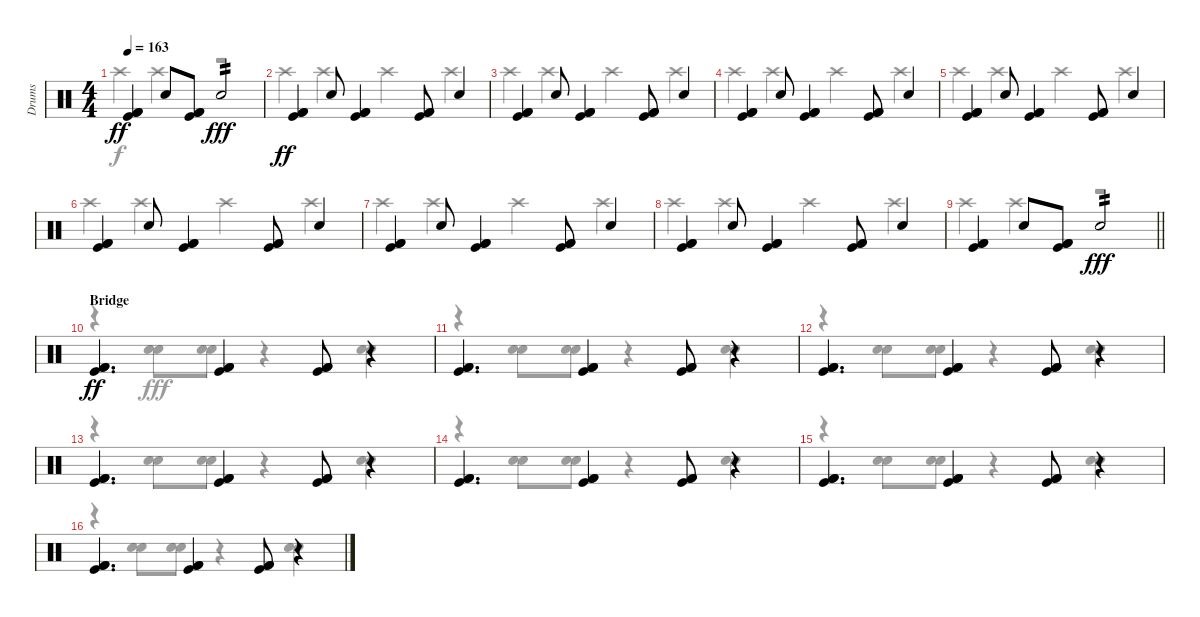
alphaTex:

\track ("Drums" "Drums") {instrument percussion}
\staff {score}
\articulation defaults
\voice
\ts (4 4)
\tempo 163
\clef neutral
\ks c
("Kick (hit) 2" "Kick (hit) 2" "Kick (hit)").4{dy ff} "Electric Snare (hit)".8 ("Kick (hit) 2" "Kick (hit) 2" "Kick (hit)").8 "Electric Snare (hit)".2{tp 2 dy fff} |
("Kick (hit) 2" "Kick (hit) 2" "Kick (hit)").4{dy ff} "Electric Snare (hit)".8 ("Kick (hit) 2" "Kick (hit) 2" "Kick (hit)").4 ("Kick (hit) 2" "Kick (hit) 2" "Kick (hit)").8 "Electric Snare (hit)".4 |
("Kick (hit) 2" "Kick (hit) 2" "Kick (hit)").4 "Electric Snare (hit)".8 ("Kick (hit) 2" "Kick (hit) 2" "Kick (hit)").4 ("Kick (hit) 2" "Kick (hit) 2" "Kick (hit)").8 "Electric Snare (hit)".4 |
("Kick (hit) 2" "Kick (hit) 2" "Kick (hit)").4 "Electric Snare (hit)".8 ("Kick (hit) 2" "Kick (hit) 2" "Kick (hit)").4 ("Kick (hit) 2" "Kick (hit) 2" "Kick (hit)").8 "Electric Snare (hit)".4 |
("Kick (hit) 2" "Kick (hit) 2" "Kick (hit)").4 "Electric Snare (hit)".8 ("Kick (hit) 2" "Kick (hit) 2" "Kick (hit)").4 ("Kick (hit) 2" "Kick (hit) 2" "Kick (hit)").8 "Electric Snare (hit)".4 |
("Kick (hit) 2" "Kick (hit) 2" "Kick (hit)").4 "Electric Snare (hit)".8 ("Kick (hit) 2" "Kick (hit) 2" "Kick (hit)").4 ("Kick (hit) 2" "Kick (hit) 2" "Kick (hit)").8 "Electric Snare (hit)".4 |
("Kick (hit) 2" "Kick (hit) 2" "Kick (hit)").4 "Electric Snare (hit)".8 ("Kick (hit) 2" "Kick (hit) 2" "Kick (hit)").4 ("Kick (hit) 2" "Kick (hit) 2" "Kick (hit)").8 "Electric Snare (hit)".4 |
("Kick (hit) 2" "Kick (hit) 2" "Kick (hit)").4 "Electric Snare (hit)".8 ("Kick (hit) 2" "Kick (hit) 2" "Kick (hit)").4 ("Kick (hit) 2" "Kick (hit) 2" "Kick (hit)").8 "Electric Snare (hit)".4 |
\barLineRight lightlight
("Kick (hit) 2" "Kick (hit) 2" "Kick (hit)").4 "Electric Snare (hit)".8 ("Kick (hit) 2" "Kick (hit) 2" "Kick (hit)").8 "Electric Snare (hit)".2{tp 2 dy fff} |
\section ("" "Bridge")
("Kick (hit) 2" "Kick (hit) 2" "Kick (hit)").4{d dy ff} ("Kick (hit) 2" "Kick (hit) 2" "Kick (hit)").4 ("Kick (hit) 2" "Kick (hit) 2" "Kick (hit)").8 r.4 |
("Kick (hit) 2" "Kick (hit) 2" "Kick (hit)").4{d} ("Kick (hit) 2" "Kick (hit) 2" "Kick (hit)").4 ("Kick (hit) 2" "Kick (hit) 2" "Kick (hit)").8 r.4 |
("Kick (hit) 2" "Kick (hit) 2" "Kick (hit)").4{d} ("Kick (hit) 2" "Kick (hit) 2" "Kick (hit)").4 ("Kick (hit) 2" "Kick (hit) 2" "Kick (hit)").8 r.4 |
("Kick (hit) 2" "Kick (hit) 2" "Kick (hit)").4{d} ("Kick (hit) 2" "Kick (hit) 2" "Kick (hit)").4 ("Kick (hit) 2" "Kick (hit) 2" "Kick (hit)").8 r.4 |
("Kick (hit) 2" "Kick (hit) 2" "Kick (hit)").4{d} ("Kick (hit) 2" "Kick (hit) 2" "Kick (hit)").4 ("Kick (hit) 2" "Kick (hit) 2" "Kick (hit)").8 r.4 |
("Kick (hit) 2" "Kick (hit) 2" "Kick (hit)").4{d} ("Kick (hit) 2" "Kick (hit) 2" "Kick (hit)").4 ("Kick (hit) 2" "Kick (hit) 2" "Kick (hit)").8 r.4 |
("Kick (hit) 2" "Kick (hit) 2" "Kick (hit)").4{d} ("Kick (hit) 2" "Kick (hit) 2" "Kick (hit)").4 ("Kick (hit) 2" "Kick (hit) 2" "Kick (hit)").8 r.4
\voice
\clef neutral
\ottava regular
\simile none
\ks c "Crash high (hit)".4{dy f} "Crash high (hit)".4
r.2 |
"Crash high (hit)".4 "Crash high (hit)".4 "Crash high (hit)".4 "Crash high (hit)".4 |
"Crash high (hit)".4 "Crash high (hit)".4 "Crash high (hit)".4 "Crash high (hit)".4 |
"Crash high (hit)".4 "Crash high (hit)".4 "Crash high (hit)".4 "Crash high (hit)".4 |
"Crash high (hit)".4 "Crash high (hit)".4 "Crash high (hit)".4 "Crash high (hit)".4 |
"Crash high (hit)".4 "Crash high (hit)".4 "Crash high (hit)".4 "Crash high (hit)".4 |
"Crash high (hit)".4 "Crash high (hit)".4 "Crash high (hit)".4 "Crash high (hit)".4 |
"Crash high (hit)".4 "Crash high (hit)".4 "Crash high (hit)".4 "Crash high (hit)".4 |
\barLineRight lightlight "Crash high (hit)".4 "Crash high (hit)".4
r.2 |
r.4 ("Hand Clap (hit)" "Hand Clap (hit)").8{dy fff} ("Hand Clap (hit)" "Hand Clap (hit)").8 r.4 ("Hand Clap (hit)" "Hand Clap (hit)").4 |
r.4 ("Hand Clap (hit)" "Hand Clap (hit)").8 ("Hand Clap (hit)" "Hand Clap (hit)").8 r.4 ("Hand Clap (hit)" "Hand Clap (hit)").4 |
r.4 ("Hand Clap (hit)" "Hand Clap (hit)").8 ("Hand Clap (hit)" "Hand Clap (hit)").8 r.4 ("Hand Clap (hit)" "Hand Clap (hit)").4 |
r.4 ("Hand Clap (hit)" "Hand Clap (hit)").8 ("Hand Clap (hit)" "Hand Clap (hit)").8 r.4 ("Hand Clap (hit)" "Hand Clap (hit)").4 |
r.4 ("Hand Clap (hit)" "Hand Clap (hit)").8 ("Hand Clap (hit)" "Hand Clap (hit)").8 r.4 ("Hand Clap (hit)" "Hand Clap (hit)").4 |
r.4 ("Hand Clap (hit)" "Hand Clap (hit)").8 ("Hand Clap (hit)" "Hand Clap (hit)").8 r.4 ("Hand Clap (hit)" "Hand Clap (hit)").4 |
r.4 ("Hand Clap (hit)" "Hand Clap (hit)").8 ("Hand Clap (hit)" "Hand Clap (hit)").8 r.4 ("Hand Clap (hit)" "Hand Clap (hit)").4
